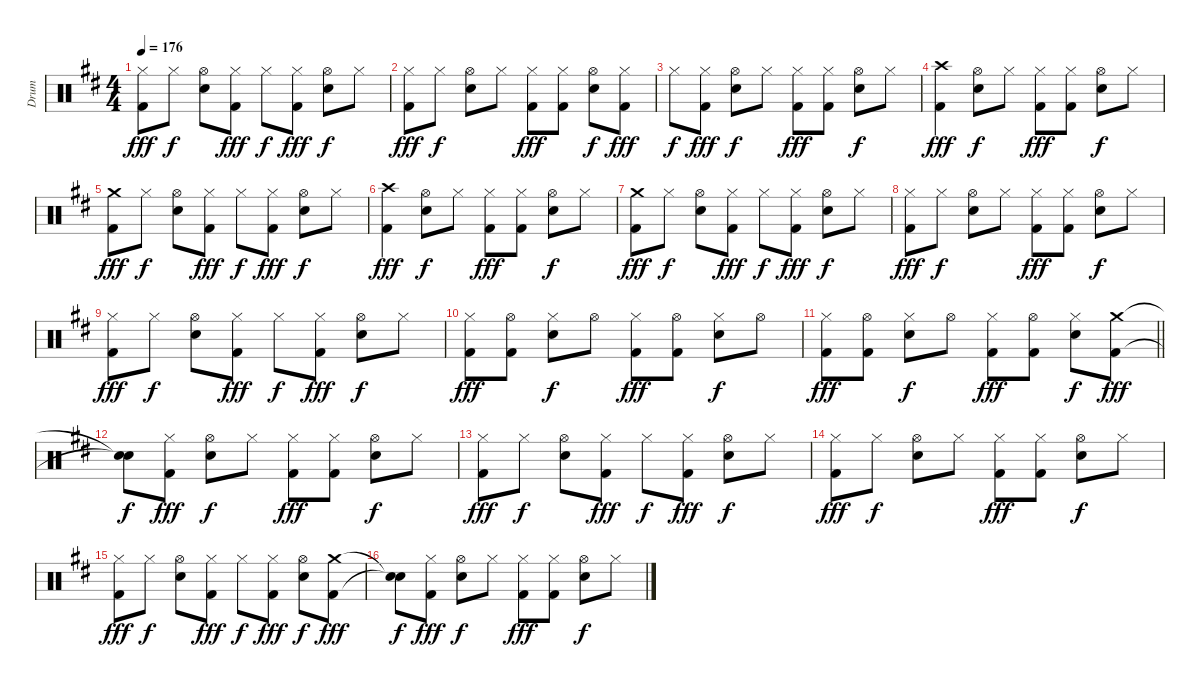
\track ("Drum" "Drum") {instrument percussion}
\staff {score}
\articulation defaults
\ts (4 4)
\tempo 176
\clef neutral
\ks d
("Hi-Hat (closed)" "Kick (hit) 2").8{dy fff} "Hi-Hat (closed)".8{dy f} ("Hi-Hat (open)" "Snare (hit) 2").8 ("Hi-Hat (closed)" "Kick (hit) 2").8{dy fff} "Hi-Hat (closed)".8{dy f} ("Hi-Hat (closed)" "Kick (hit) 2").8{dy fff} ("Hi-Hat (open)" "Snare (hit) 2").8{dy f} "Hi-Hat (closed)".8 |
("Hi-Hat (closed)" "Kick (hit) 2").8{dy fff} "Hi-Hat (closed)".8{dy f} ("Hi-Hat (open)" "Snare (hit) 2").8 "Hi-Hat (closed)".8 ("Hi-Hat (closed)" "Kick (hit) 2").8{dy fff} ("Hi-Hat (closed)" "Kick (hit) 2").8 ("Hi-Hat (open)" "Snare (hit) 2").8{dy f} ("Hi-Hat (closed)" "Kick (hit) 2").8{dy fff} |
"Hi-Hat (closed)".8{dy f} ("Hi-Hat (closed)" "Kick (hit) 2").8{dy fff} ("Hi-Hat (open)" "Snare (hit) 2").8{dy f} "Hi-Hat (closed)".8 ("Hi-Hat (closed)" "Kick (hit) 2").8{dy fff} ("Hi-Hat (closed)" "Kick (hit) 2").8 ("Hi-Hat (open)" "Snare (hit) 2").8{dy f} "Hi-Hat (closed)".8 |
("Crash high (hit)" "Kick (hit) 2").4{dy fff} ("Hi-Hat (open)" "Snare (hit) 2").8{dy f} "Hi-Hat (closed)".8 ("Hi-Hat (closed)" "Kick (hit) 2").8{dy fff} ("Hi-Hat (closed)" "Kick (hit) 2").8 ("Hi-Hat (open)" "Snare (hit) 2").8{dy f} "Hi-Hat (closed)".8 |
("Crash medium (hit)" "Kick (hit) 2").8{dy fff} "Hi-Hat (closed)".8{dy f} ("Hi-Hat (open)" "Snare (hit) 2").8 ("Hi-Hat (closed)" "Kick (hit) 2").8{dy fff} "Hi-Hat (closed)".8{dy f} ("Hi-Hat (closed)" "Kick (hit) 2").8{dy fff} ("Hi-Hat (open)" "Snare (hit) 2").8{dy f} "Hi-Hat (closed)".8 |
("Crash high (hit)" "Kick (hit) 2").4{dy fff} ("Hi-Hat (open)" "Snare (hit) 2").8{dy f} "Hi-Hat (closed)".8 ("Hi-Hat (closed)" "Kick (hit) 2").8{dy fff} ("Hi-Hat (closed)" "Kick (hit) 2").8 ("Hi-Hat (open)" "Snare (hit) 2").8{dy f} "Hi-Hat (closed)".8 |
("Crash medium (hit)" "Kick (hit) 2").8{dy fff} "Hi-Hat (closed)".8{dy f} ("Hi-Hat (open)" "Snare (hit) 2").8 ("Hi-Hat (closed)" "Kick (hit) 2").8{dy fff} "Hi-Hat (closed)".8{dy f} ("Hi-Hat (closed)" "Kick (hit) 2").8{dy fff} ("Hi-Hat (open)" "Snare (hit) 2").8{dy f} "Hi-Hat (closed)".8 |
("Hi-Hat (closed)" "Kick (hit) 2").8{dy fff} "Hi-Hat (closed)".8{dy f} ("Hi-Hat (open)" "Snare (hit) 2").8 "Hi-Hat (closed)".8 ("Hi-Hat (closed)" "Kick (hit) 2").8{dy fff} ("Hi-Hat (closed)" "Kick (hit) 2").8 ("Hi-Hat (open)" "Snare (hit) 2").8{dy f} "Hi-Hat (closed)".8 |
("Hi-Hat (closed)" "Kick (hit) 2").8{dy fff} "Hi-Hat (closed)".8{dy f} ("Hi-Hat (open)" "Snare (hit) 2").8 ("Hi-Hat (closed)" "Kick (hit) 2").8{dy fff} "Hi-Hat (closed)".8{dy f} ("Hi-Hat (closed)" "Kick (hit) 2").8{dy fff} ("Hi-Hat (open)" "Snare (hit) 2").8{dy f} "Hi-Hat (closed)".8 |
("Hi-Hat (closed)" "Kick (hit) 2").8{dy fff} ("Hi-Hat (open)" "Kick (hit) 2").8 ("Hi-Hat (closed)" "Snare (hit) 2").8{dy f} "Hi-Hat (open)".8 ("Hi-Hat (closed)" "Kick (hit) 2").8{dy fff} ("Hi-Hat (open)" "Kick (hit) 2").8 ("Hi-Hat (closed)" "Snare (hit) 2").8{dy f} "Hi-Hat (open)".8 |
\barLineRight lightlight
("Hi-Hat (closed)" "Kick (hit) 2").8{dy fff} ("Hi-Hat (open)" "Kick (hit) 2").8 ("Hi-Hat (closed)" "Snare (hit) 2").8{dy f} "Hi-Hat (open)".8 ("Hi-Hat (closed)" "Kick (hit) 2").8{dy fff} ("Hi-Hat (open)" "Kick (hit) 2").8 ("Hi-Hat (closed)" "Snare (hit) 2").8{dy f} ("Crash medium (hit)" "Kick (hit) 2").8{dy fff} |
("Snare (hit)"{t} "Snare (hit)"{t}).8{dy f} ("Hi-Hat (closed)" "Kick (hit) 2").8{dy fff} ("Hi-Hat (open)" "Snare (hit) 2").8{dy f} "Hi-Hat (closed)".8 ("Hi-Hat (closed)" "Kick (hit) 2").8{dy fff} ("Hi-Hat (closed)" "Kick (hit) 2").8 ("Hi-Hat (open)" "Snare (hit) 2").8{dy f} "Hi-Hat (closed)".8 |
("Hi-Hat (closed)" "Kick (hit) 2").8{dy fff} "Hi-Hat (closed)".8{dy f} ("Hi-Hat (open)" "Snare (hit) 2").8 ("Hi-Hat (closed)" "Kick (hit) 2").8{dy fff} "Hi-Hat (closed)".8{dy f} ("Hi-Hat (closed)" "Kick (hit) 2").8{dy fff} ("Hi-Hat (open)" "Snare (hit) 2").8{dy f} "Hi-Hat (closed)".8 |
("Hi-Hat (closed)" "Kick (hit) 2").8{dy fff} "Hi-Hat (closed)".8{dy f} ("Hi-Hat (open)" "Snare (hit) 2").8 "Hi-Hat (closed)".8 ("Hi-Hat (closed)" "Kick (hit) 2").8{dy fff} ("Hi-Hat (closed)" "Kick (hit) 2").8 ("Hi-Hat (open)" "Snare (hit) 2").8{dy f} "Hi-Hat (closed)".8 |
("Hi-Hat (closed)" "Kick (hit) 2").8{dy fff} "Hi-Hat (closed)".8{dy f} ("Hi-Hat (open)" "Snare (hit) 2").8 ("Hi-Hat (closed)" "Kick (hit) 2").8{dy fff} "Hi-Hat (closed)".8{dy f} ("Hi-Hat (closed)" "Kick (hit) 2").8{dy fff} ("Hi-Hat (open)" "Snare (hit) 2").8{dy f} ("Crash medium (hit)" "Kick (hit) 2").8{dy fff} |
("Snare (hit)"{t} "Snare (hit)"{t}).8{dy f} ("Hi-Hat (closed)" "Kick (hit) 2").8{dy fff} ("Hi-Hat (open)" "Snare (hit) 2").8{dy f} "Hi-Hat (closed)".8 ("Hi-Hat (closed)" "Kick (hit) 2").8{dy fff} ("Hi-Hat (closed)" "Kick (hit) 2").8 ("Hi-Hat (open)" "Snare (hit) 2").8{dy f} "Hi-Hat (closed)".8
